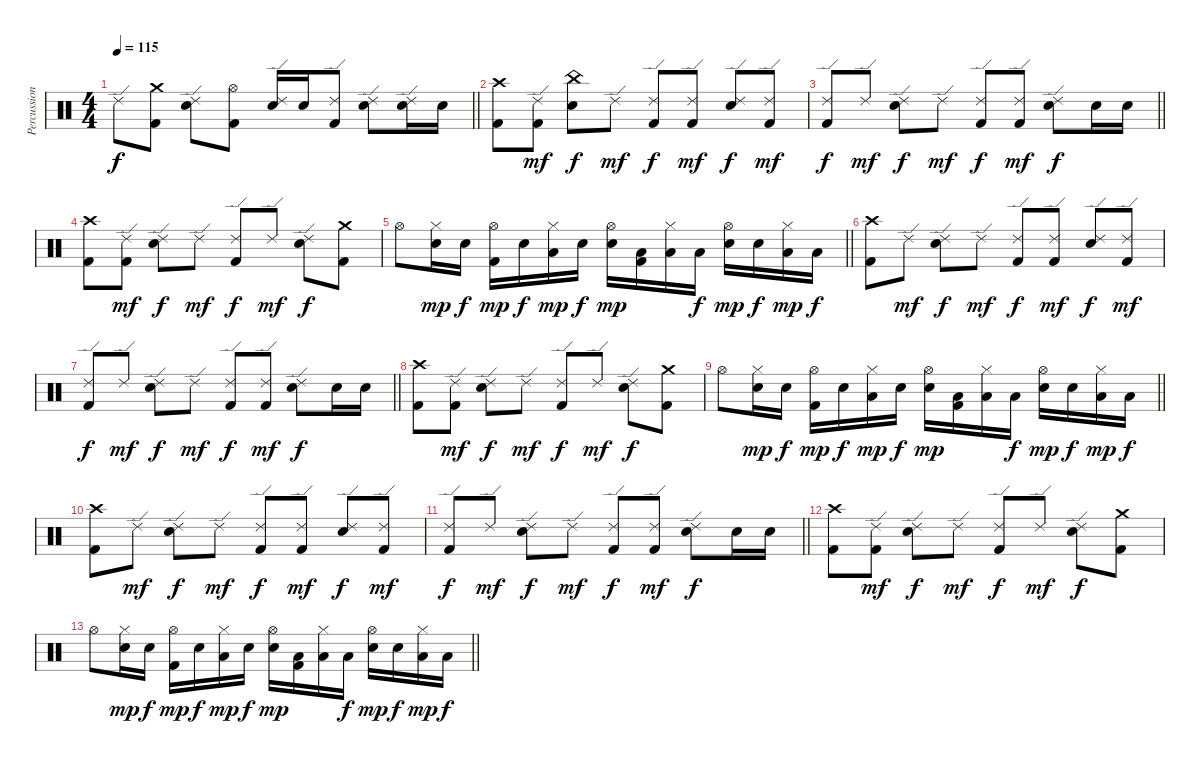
\track ("Percussion" "Percussion") {instrument percussion}
\staff {score}
\articulation defaults
\ts (4 4)
\tempo 115
\clef neutral
\barLineRight lightlight
\ks c "Ride (edge) 2".8{dy f}
("Crash medium (hit)" "Kick (hit) 2").8 ("Ride (edge) 2" "Electric Snare (hit)").8 ("Hi-Hat (open)" "Kick (hit) 2").8 ("Ride (edge) 2" "Electric Snare (hit)").16 "Electric Snare (hit)".16 ("Ride (edge) 2" "Kick (hit) 2").8 ("Ride (edge) 2" "Electric Snare (hit)").8 ("Ride (edge) 2" "Electric Snare (hit)").16 "Electric Snare (hit)".16 |
("Crash high (hit)" "Kick (hit) 2").8 ("Ride (edge) 2" "Kick (hit) 2").8{dy mf} ("China (hit)" "Electric Snare (hit)").8{dy f} "Ride (edge) 2".8{dy mf} ("Ride (edge) 2" "Kick (hit) 2").8{dy f} ("Ride (edge) 2" "Kick (hit) 2").8{dy mf} ("Ride (edge) 2" "Electric Snare (hit)").8{dy f} ("Ride (edge) 2" "Kick (hit) 2").8{dy mf} |
\barLineRight lightlight
("Ride (edge) 2" "Kick (hit) 2").8{dy f} "Ride (edge) 2".8{dy mf} ("Ride (edge) 2" "Electric Snare (hit)").8{dy f} "Ride (edge) 2".8{dy mf} ("Ride (edge) 2" "Kick (hit) 2").8{dy f} ("Ride (edge) 2" "Kick (hit) 2").8{dy mf} ("Ride (edge) 2" "Electric Snare (hit)").8{dy f} "Electric Snare (hit)".16 "Electric Snare (hit)".16 |
("Crash high (hit)" "Kick (hit) 2").8 ("Ride (edge) 2" "Kick (hit) 2").8{dy mf} ("Ride (edge) 2" "Electric Snare (hit)").8{dy f} "Ride (edge) 2".8{dy mf} ("Ride (edge) 2" "Kick (hit) 2").8{dy f} "Ride (edge) 2".8{dy mf} ("Ride (edge) 2" "Electric Snare (hit)").8{dy f} ("Crash medium (hit)" "Kick (hit) 2").8 |
\barLineRight lightlight "Hi-Hat (open)".8
("Hi-Hat (closed)" "Electric Snare (hit)").16{dy mp} "Electric Snare (hit)".16{dy f} ("Hi-Hat (open)" "Kick (hit) 2").16{dy mp} "Electric Snare (hit)".16{dy f} ("Low Tom (hit)" "Hi-Hat (closed)").16{dy mp} "Electric Snare (hit)".16{dy f} ("Hi-Hat (open)" "Electric Snare (hit)").16{dy mp} ("Low Floor Tom (hit)" "Kick (hit) 2").16 ("Low Tom (hit)" "Hi-Hat (closed)").16 "Low Floor Tom (hit)".16{dy f} ("Hi-Hat (open)" "Electric Snare (hit)").16{dy mp} "Electric Snare (hit)".16{dy f} ("Low Floor Tom (hit)" "Hi-Hat (closed)").16{dy mp} "Low Tom (hit)".16{dy f} |
("Crash high (hit)" "Kick (hit) 2").8 "Ride (edge) 2".8{dy mf} ("Ride (edge) 2" "Electric Snare (hit)").8{dy f} "Ride (edge) 2".8{dy mf} ("Ride (edge) 2" "Kick (hit) 2").8{dy f} ("Ride (edge) 2" "Kick (hit) 2").8{dy mf} ("Ride (edge) 2" "Electric Snare (hit)").8{dy f} ("Ride (edge) 2" "Kick (hit) 2").8{dy mf} |
\barLineRight lightlight
("Ride (edge) 2" "Kick (hit) 2").8{dy f} "Ride (edge) 2".8{dy mf} ("Ride (edge) 2" "Electric Snare (hit)").8{dy f} "Ride (edge) 2".8{dy mf} ("Ride (edge) 2" "Kick (hit) 2").8{dy f} ("Ride (edge) 2" "Kick (hit) 2").8{dy mf} ("Ride (edge) 2" "Electric Snare (hit)").8{dy f} "Electric Snare (hit)".16 "Electric Snare (hit)".16 |
("Crash high (hit)" "Kick (hit) 2").8 ("Ride (edge) 2" "Kick (hit) 2").8{dy mf} ("Ride (edge) 2" "Electric Snare (hit)").8{dy f} "Ride (edge) 2".8{dy mf} ("Ride (edge) 2" "Kick (hit) 2").8{dy f} "Ride (edge) 2".8{dy mf} ("Ride (edge) 2" "Electric Snare (hit)").8{dy f} ("Crash medium (hit)" "Kick (hit) 2").8 |
\barLineRight lightlight "Hi-Hat (open)".8
("Hi-Hat (closed)" "Electric Snare (hit)").16{dy mp} "Electric Snare (hit)".16{dy f} ("Hi-Hat (open)" "Kick (hit) 2").16{dy mp} "Electric Snare (hit)".16{dy f} ("Low Tom (hit)" "Hi-Hat (closed)").16{dy mp} "Electric Snare (hit)".16{dy f} ("Hi-Hat (open)" "Electric Snare (hit)").16{dy mp} ("Low Floor Tom (hit)" "Kick (hit) 2").16 ("Low Tom (hit)" "Hi-Hat (closed)").16 "Low Floor Tom (hit)".16{dy f} ("Hi-Hat (open)" "Electric Snare (hit)").16{dy mp} "Electric Snare (hit)".16{dy f} ("Low Floor Tom (hit)" "Hi-Hat (closed)").16{dy mp} "Low Tom (hit)".16{dy f} |
("Crash high (hit)" "Kick (hit) 2").8 "Ride (edge) 2".8{dy mf} ("Ride (edge) 2" "Electric Snare (hit)").8{dy f} "Ride (edge) 2".8{dy mf} ("Ride (edge) 2" "Kick (hit) 2").8{dy f} ("Ride (edge) 2" "Kick (hit) 2").8{dy mf} ("Ride (edge) 2" "Electric Snare (hit)").8{dy f} ("Ride (edge) 2" "Kick (hit) 2").8{dy mf} |
\barLineRight lightlight
("Ride (edge) 2" "Kick (hit) 2").8{dy f} "Ride (edge) 2".8{dy mf} ("Ride (edge) 2" "Electric Snare (hit)").8{dy f} "Ride (edge) 2".8{dy mf} ("Ride (edge) 2" "Kick (hit) 2").8{dy f} ("Ride (edge) 2" "Kick (hit) 2").8{dy mf} ("Ride (edge) 2" "Electric Snare (hit)").8{dy f} "Electric Snare (hit)".16 "Electric Snare (hit)".16 |
("Crash high (hit)" "Kick (hit) 2").8 ("Ride (edge) 2" "Kick (hit) 2").8{dy mf} ("Ride (edge) 2" "Electric Snare (hit)").8{dy f} "Ride (edge) 2".8{dy mf} ("Ride (edge) 2" "Kick (hit) 2").8{dy f} "Ride (edge) 2".8{dy mf} ("Ride (edge) 2" "Electric Snare (hit)").8{dy f} ("Crash medium (hit)" "Kick (hit) 2").8 |
\barLineRight lightlight "Hi-Hat (open)".8
("Hi-Hat (closed)" "Electric Snare (hit)").16{dy mp} "Electric Snare (hit)".16{dy f} ("Hi-Hat (open)" "Kick (hit) 2").16{dy mp} "Electric Snare (hit)".16{dy f} ("Low Tom (hit)" "Hi-Hat (closed)").16{dy mp} "Electric Snare (hit)".16{dy f} ("Hi-Hat (open)" "Electric Snare (hit)").16{dy mp} ("Low Floor Tom (hit)" "Kick (hit) 2").16 ("Low Tom (hit)" "Hi-Hat (closed)").16 "Low Floor Tom (hit)".16{dy f} ("Hi-Hat (open)" "Electric Snare (hit)").16{dy mp} "Electric Snare (hit)".16{dy f} ("Low Floor Tom (hit)" "Hi-Hat (closed)").16{dy mp} "Low Tom (hit)".16{dy f}
